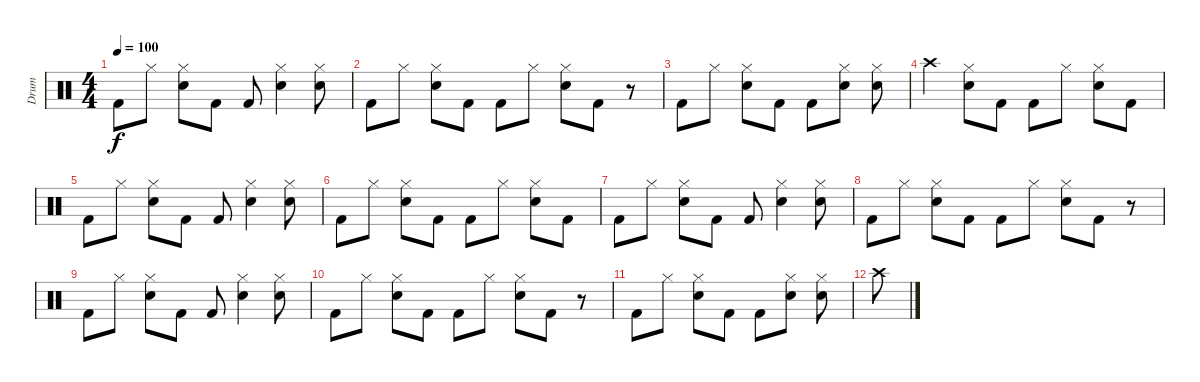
\track ("Drum" "Drum") {instrument percussion}
\staff {score}
\articulation defaults
\ts (4 4)
\tempo 100
\clef neutral
\ks c "Kick (hit) 2".8{dy f} "Hi-Hat (closed)".8
("Hi-Hat (closed)" "Electric Snare (hit)").8 "Kick (hit) 2".8 "Kick (hit) 2".8 ("Hi-Hat (closed)" "Electric Snare (hit)").4 ("Hi-Hat (closed)" "Electric Snare (hit)").8 |
"Kick (hit) 2".8 "Hi-Hat (closed)".8 ("Hi-Hat (closed)" "Electric Snare (hit)").8 "Kick (hit) 2".8 "Kick (hit) 2".8 "Hi-Hat (closed)".8 ("Hi-Hat (closed)" "Electric Snare (hit)").8 "Kick (hit) 2".8 r.8 |
"Kick (hit) 2".8 "Hi-Hat (closed)".8 ("Hi-Hat (closed)" "Electric Snare (hit)").8 "Kick (hit) 2".8 "Kick (hit) 2".8 ("Hi-Hat (closed)" "Electric Snare (hit)").8 ("Hi-Hat (closed)" "Electric Snare (hit)").8 |
"Crash high (hit)".4 ("Hi-Hat (closed)" "Electric Snare (hit)").8 "Kick (hit) 2".8 "Kick (hit) 2".8 "Hi-Hat (closed)".8 ("Hi-Hat (closed)" "Electric Snare (hit)").8 "Kick (hit) 2".8 |
"Kick (hit) 2".8 "Hi-Hat (closed)".8 ("Hi-Hat (closed)" "Electric Snare (hit)").8 "Kick (hit) 2".8 "Kick (hit) 2".8 ("Hi-Hat (closed)" "Electric Snare (hit)").4 ("Hi-Hat (closed)" "Electric Snare (hit)").8 |
"Kick (hit) 2".8 "Hi-Hat (closed)".8 ("Hi-Hat (closed)" "Electric Snare (hit)").8 "Kick (hit) 2".8 "Kick (hit) 2".8 "Hi-Hat (closed)".8 ("Hi-Hat (closed)" "Electric Snare (hit)").8 "Kick (hit) 2".8 |
"Kick (hit) 2".8 "Hi-Hat (closed)".8 ("Hi-Hat (closed)" "Electric Snare (hit)").8 "Kick (hit) 2".8 "Kick (hit) 2".8 ("Hi-Hat (closed)" "Electric Snare (hit)").4 ("Hi-Hat (closed)" "Electric Snare (hit)").8 |
"Kick (hit) 2".8 "Hi-Hat (closed)".8 ("Hi-Hat (closed)" "Electric Snare (hit)").8 "Kick (hit) 2".8 "Kick (hit) 2".8 "Hi-Hat (closed)".8 ("Hi-Hat (closed)" "Electric Snare (hit)").8 "Kick (hit) 2".8 r.8 |
"Kick (hit) 2".8 "Hi-Hat (closed)".8 ("Hi-Hat (closed)" "Electric Snare (hit)").8 "Kick (hit) 2".8 "Kick (hit) 2".8 ("Hi-Hat (closed)" "Electric Snare (hit)").4 ("Hi-Hat (closed)" "Electric Snare (hit)").8 |
"Kick (hit) 2".8 "Hi-Hat (closed)".8 ("Hi-Hat (closed)" "Electric Snare (hit)").8 "Kick (hit) 2".8 "Kick (hit) 2".8 "Hi-Hat (closed)".8 ("Hi-Hat (closed)" "Electric Snare (hit)").8 "Kick (hit) 2".8 r.8 |
"Kick (hit) 2".8 "Hi-Hat (closed)".8 ("Hi-Hat (closed)" "Electric Snare (hit)").8 "Kick (hit) 2".8 "Kick (hit) 2".8 ("Hi-Hat (closed)" "Electric Snare (hit)").8 ("Hi-Hat (closed)" "Electric Snare (hit)").8 |
"Crash high (hit)".8
